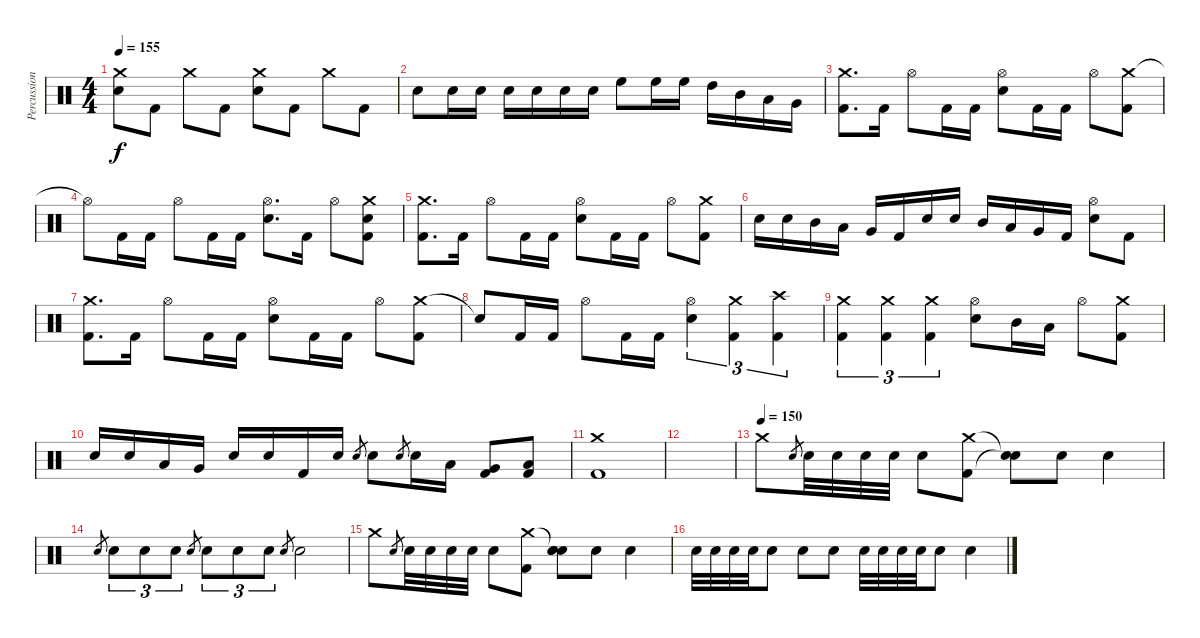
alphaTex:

\track ("Percussion" "Percussion") {instrument percussion}
\staff {score}
\articulation defaults
\ts (4 4)
\tempo 155
\clef neutral
\ks c
("Crash medium (hit)" "Electric Snare (hit)").8{dy f} "Kick (hit) 2".8 "Crash medium (hit)".8 "Kick (hit) 2".8 ("Crash medium (hit)" "Electric Snare (hit)").8 "Kick (hit) 2".8 "Crash medium (hit)".8 "Kick (hit) 2".8 |
"Electric Snare (hit)".8 "Electric Snare (hit)".16 "Electric Snare (hit)".16 "Electric Snare (hit)".16 "Electric Snare (hit)".16 "Electric Snare (hit)".16 "Electric Snare (hit)".16 "High Floor Tom (hit)".8 "High Floor Tom (hit)".16 "High Floor Tom (hit)".16 "High Tom (hit)".16 "Mid Tom (hit)".16 "Low Tom (hit)".16 "Very Low Tom (hit)".16 |
("Crash medium (hit)" "Kick (hit) 2").8{d} "Kick (hit) 2".16 "Hi-Hat (open)".8 "Kick (hit) 2".16 "Kick (hit) 2".16 ("Hi-Hat (open)" "Electric Snare (hit)").8 "Kick (hit) 2".16 "Kick (hit) 2".16 "Hi-Hat (open)".8 ("Crash medium (hit)" "Kick (hit) 2").8 |
"Hi-Hat (open)"{t}.8 "Kick (hit) 2".16 "Kick (hit) 2".16 "Hi-Hat (open)".8 "Kick (hit) 2".16 "Kick (hit) 2".16 ("Hi-Hat (open)" "Electric Snare (hit)").8{d} "Kick (hit) 2".16 "Hi-Hat (open)".8 ("Crash medium (hit)" "Electric Snare (hit)" "Kick (hit) 2").8 |
("Crash medium (hit)" "Kick (hit) 2").8{d} "Kick (hit) 2".16 "Hi-Hat (open)".8 "Kick (hit) 2".16 "Kick (hit) 2".16 ("Hi-Hat (open)" "Electric Snare (hit)").8 "Kick (hit) 2".16 "Kick (hit) 2".16 "Hi-Hat (open)".8 ("Crash medium (hit)" "Kick (hit) 2").8 |
"Electric Snare (hit)".16 "Electric Snare (hit)".16 "Mid Tom (hit)".16 "Low Tom (hit)".16 "Very Low Tom (hit)".16 "Kick (hit) 2".16 "Electric Snare (hit)".16 "Electric Snare (hit)".16 "Mid Tom (hit)".16 "Low Tom (hit)".16 "Very Low Tom (hit)".16 "Kick (hit) 2".16 ("Hi-Hat (open)" "Electric Snare (hit)").8 "Kick (hit) 2".8 |
("Crash medium (hit)" "Kick (hit) 2").8{d} "Kick (hit) 2".16 "Hi-Hat (open)".8 "Kick (hit) 2".16 "Kick (hit) 2".16 ("Hi-Hat (open)" "Electric Snare (hit)").8 "Kick (hit) 2".16 "Kick (hit) 2".16 "Hi-Hat (open)".8 ("Crash medium (hit)" "Kick (hit) 2").8 |
"Snare (hit)"{t}.8 "Kick (hit) 2".16 "Kick (hit) 2".16 "Hi-Hat (open)".8 "Kick (hit) 2".16 "Kick (hit) 2".16 ("Hi-Hat (open)" "Electric Snare (hit)").4{tu (3 2)} ("Crash medium (hit)" "Kick (hit) 2").4{tu (3 2)} ("Crash high (hit)" "Kick (hit) 2").4{tu (3 2)} |
("Crash medium (hit)" "Kick (hit) 2").4{tu (3 2)} ("Crash medium (hit)" "Kick (hit) 2").4{tu (3 2)} ("Crash medium (hit)" "Kick (hit) 2").4{tu (3 2)} ("Hi-Hat (open)" "Electric Snare (hit)").8 "Mid Tom (hit)".16 "Low Tom (hit)".16 "Hi-Hat (open)".8 ("Crash medium (hit)" "Kick (hit) 2").8 |
"Electric Snare (hit)".16 "Electric Snare (hit)".16 "Low Tom (hit)".16 "Very Low Tom (hit)".16 "Electric Snare (hit)".16 "Electric Snare (hit)".16 "Kick (hit) 2".16 "Electric Snare (hit)".16 "Electric Snare (hit)".8{gr} "Electric Snare (hit)".8 "Electric Snare (hit)".8{gr} "Electric Snare (hit)".16 "Low Tom (hit)".16 ("Very Low Tom (hit)" "Kick (hit) 2").8 ("Low Tom (hit)" "Kick (hit) 2").8 |
("Crash medium (hit)" "Kick (hit) 2").1 |
|
\tempo (150)
"Crash medium (hit)".8 "Snare (hit) 2".8{gr} "Snare (hit) 2".32 "Snare (hit) 2".32 "Snare (hit) 2".32 "Snare (hit) 2".32 "Snare (hit) 2".8 ("Crash medium (hit)" "Kick (hit) 2").8 ("Snare (hit)"{t} "Snare (hit)"{t}).8 "Snare (hit) 2".8 "Snare (hit) 2".4 |
"Snare (hit) 2".8{gr} "Snare (hit) 2".8{tu (3 2)} "Snare (hit) 2".8{tu (3 2)} "Snare (hit) 2".8{tu (3 2)} "Snare (hit) 2".8{gr} "Snare (hit) 2".8{tu (3 2)} "Snare (hit) 2".8{tu (3 2)} "Snare (hit) 2".8{tu (3 2)} "Snare (hit) 2".8{gr} "Snare (hit) 2".2 |
"Crash medium (hit)".8 "Snare (hit) 2".8{gr} "Snare (hit) 2".32 "Snare (hit) 2".32 "Snare (hit) 2".32 "Snare (hit) 2".32 "Snare (hit) 2".8 ("Crash medium (hit)" "Kick (hit) 2").8 ("Snare (hit)"{t} "Snare (hit) 2" "Snare (hit)").8 "Snare (hit) 2".8 "Snare (hit) 2".4 |
"Snare (hit) 2".32 "Snare (hit) 2".32 "Snare (hit) 2".32 "Snare (hit) 2".32 "Snare (hit) 2".8 "Snare (hit) 2".8 "Snare (hit) 2".8 "Snare (hit) 2".32 "Snare (hit) 2".32 "Snare (hit) 2".32 "Snare (hit) 2".32 "Snare (hit) 2".8 "Snare (hit) 2".4
